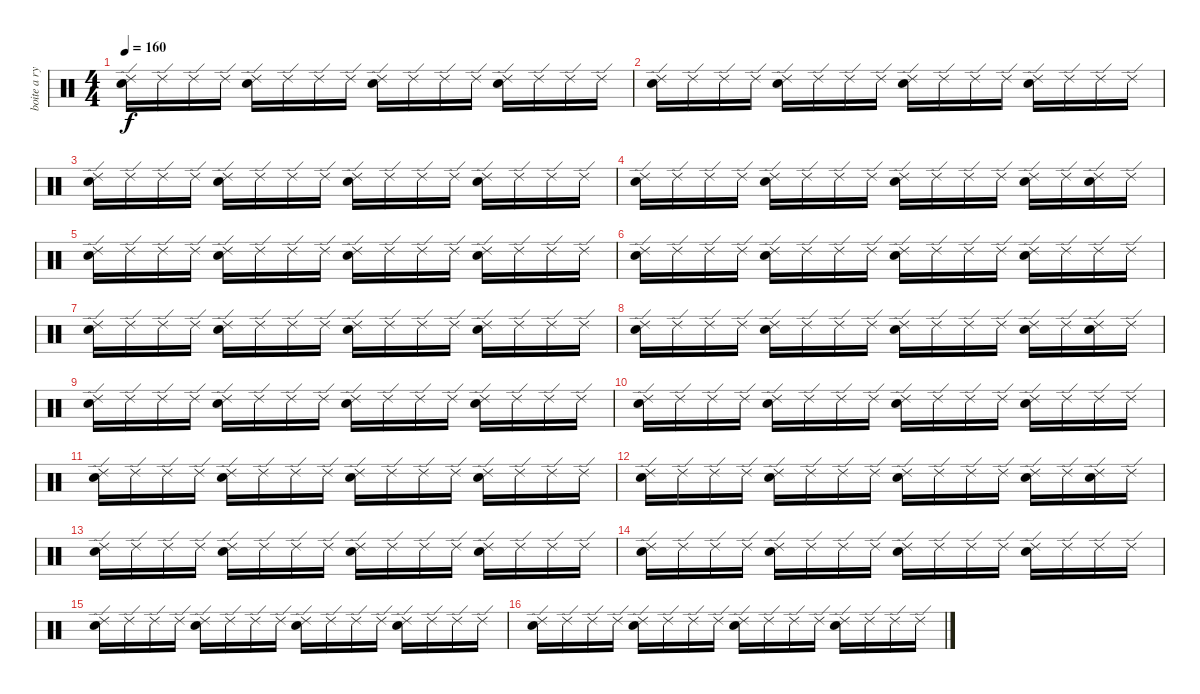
\track ("boite a rythme" "boite a ry") {instrument percussion}
\staff {score}
\articulation defaults
\ts (4 4)
\tempo 160
\clef neutral
\ks c
("Ride (edge) 2" "Electric Snare (hit)").16{dy f} "Ride (edge) 2".16 "Ride (edge) 2".16 "Ride (edge) 2".16 ("Ride (edge) 2" "Electric Snare (hit)").16 "Ride (edge) 2".16 "Ride (edge) 2".16 "Ride (edge) 2".16 ("Ride (edge) 2" "Electric Snare (hit)").16 "Ride (edge) 2".16 "Ride (edge) 2".16 "Ride (edge) 2".16 ("Ride (edge) 2" "Electric Snare (hit)").16 "Ride (edge) 2".16 "Ride (edge) 2".16 "Ride (edge) 2".16 |
("Ride (edge) 2" "Electric Snare (hit)").16 "Ride (edge) 2".16 "Ride (edge) 2".16 "Ride (edge) 2".16 ("Ride (edge) 2" "Electric Snare (hit)").16 "Ride (edge) 2".16 "Ride (edge) 2".16 "Ride (edge) 2".16 ("Ride (edge) 2" "Electric Snare (hit)").16 "Ride (edge) 2".16 "Ride (edge) 2".16 "Ride (edge) 2".16 ("Ride (edge) 2" "Electric Snare (hit)").16 "Ride (edge) 2".16 "Ride (edge) 2".16 "Ride (edge) 2".16 |
("Ride (edge) 2" "Electric Snare (hit)").16 "Ride (edge) 2".16 "Ride (edge) 2".16 "Ride (edge) 2".16 ("Ride (edge) 2" "Electric Snare (hit)").16 "Ride (edge) 2".16 "Ride (edge) 2".16 "Ride (edge) 2".16 ("Ride (edge) 2" "Electric Snare (hit)").16 "Ride (edge) 2".16 "Ride (edge) 2".16 "Ride (edge) 2".16 ("Ride (edge) 2" "Electric Snare (hit)").16 "Ride (edge) 2".16 "Ride (edge) 2".16 "Ride (edge) 2".16 |
("Ride (edge) 2" "Electric Snare (hit)").16 "Ride (edge) 2".16 "Ride (edge) 2".16 "Ride (edge) 2".16 ("Ride (edge) 2" "Electric Snare (hit)").16 "Ride (edge) 2".16 "Ride (edge) 2".16 "Ride (edge) 2".16 ("Ride (edge) 2" "Electric Snare (hit)").16 "Ride (edge) 2".16 "Ride (edge) 2".16 "Ride (edge) 2".16 ("Ride (edge) 2" "Electric Snare (hit)").16 "Ride (edge) 2".16 ("Ride (edge) 2" "Electric Snare (hit)").16 "Ride (edge) 2".16 |
("Ride (edge) 2" "Electric Snare (hit)").16 "Ride (edge) 2".16 "Ride (edge) 2".16 "Ride (edge) 2".16 ("Ride (edge) 2" "Electric Snare (hit)").16 "Ride (edge) 2".16 "Ride (edge) 2".16 "Ride (edge) 2".16 ("Ride (edge) 2" "Electric Snare (hit)").16 "Ride (edge) 2".16 "Ride (edge) 2".16 "Ride (edge) 2".16 ("Ride (edge) 2" "Electric Snare (hit)").16 "Ride (edge) 2".16 "Ride (edge) 2".16 "Ride (edge) 2".16 |
("Ride (edge) 2" "Electric Snare (hit)").16 "Ride (edge) 2".16 "Ride (edge) 2".16 "Ride (edge) 2".16 ("Ride (edge) 2" "Electric Snare (hit)").16 "Ride (edge) 2".16 "Ride (edge) 2".16 "Ride (edge) 2".16 ("Ride (edge) 2" "Electric Snare (hit)").16 "Ride (edge) 2".16 "Ride (edge) 2".16 "Ride (edge) 2".16 ("Ride (edge) 2" "Electric Snare (hit)").16 "Ride (edge) 2".16 "Ride (edge) 2".16 "Ride (edge) 2".16 |
("Ride (edge) 2" "Electric Snare (hit)").16 "Ride (edge) 2".16 "Ride (edge) 2".16 "Ride (edge) 2".16 ("Ride (edge) 2" "Electric Snare (hit)").16 "Ride (edge) 2".16 "Ride (edge) 2".16 "Ride (edge) 2".16 ("Ride (edge) 2" "Electric Snare (hit)").16 "Ride (edge) 2".16 "Ride (edge) 2".16 "Ride (edge) 2".16 ("Ride (edge) 2" "Electric Snare (hit)").16 "Ride (edge) 2".16 "Ride (edge) 2".16 "Ride (edge) 2".16 |
("Ride (edge) 2" "Electric Snare (hit)").16 "Ride (edge) 2".16 "Ride (edge) 2".16 "Ride (edge) 2".16 ("Ride (edge) 2" "Electric Snare (hit)").16 "Ride (edge) 2".16 "Ride (edge) 2".16 "Ride (edge) 2".16 ("Ride (edge) 2" "Electric Snare (hit)").16 "Ride (edge) 2".16 "Ride (edge) 2".16 "Ride (edge) 2".16 ("Ride (edge) 2" "Electric Snare (hit)").16 "Ride (edge) 2".16 ("Ride (edge) 2" "Electric Snare (hit)").16 "Ride (edge) 2".16 |
("Ride (edge) 2" "Electric Snare (hit)").16 "Ride (edge) 2".16 "Ride (edge) 2".16 "Ride (edge) 2".16 ("Ride (edge) 2" "Electric Snare (hit)").16 "Ride (edge) 2".16 "Ride (edge) 2".16 "Ride (edge) 2".16 ("Ride (edge) 2" "Electric Snare (hit)").16 "Ride (edge) 2".16 "Ride (edge) 2".16 "Ride (edge) 2".16 ("Ride (edge) 2" "Electric Snare (hit)").16 "Ride (edge) 2".16 "Ride (edge) 2".16 "Ride (edge) 2".16 |
("Ride (edge) 2" "Electric Snare (hit)").16 "Ride (edge) 2".16 "Ride (edge) 2".16 "Ride (edge) 2".16 ("Ride (edge) 2" "Electric Snare (hit)").16 "Ride (edge) 2".16 "Ride (edge) 2".16 "Ride (edge) 2".16 ("Ride (edge) 2" "Electric Snare (hit)").16 "Ride (edge) 2".16 "Ride (edge) 2".16 "Ride (edge) 2".16 ("Ride (edge) 2" "Electric Snare (hit)").16 "Ride (edge) 2".16 "Ride (edge) 2".16 "Ride (edge) 2".16 |
("Ride (edge) 2" "Electric Snare (hit)").16 "Ride (edge) 2".16 "Ride (edge) 2".16 "Ride (edge) 2".16 ("Ride (edge) 2" "Electric Snare (hit)").16 "Ride (edge) 2".16 "Ride (edge) 2".16 "Ride (edge) 2".16 ("Ride (edge) 2" "Electric Snare (hit)").16 "Ride (edge) 2".16 "Ride (edge) 2".16 "Ride (edge) 2".16 ("Ride (edge) 2" "Electric Snare (hit)").16 "Ride (edge) 2".16 "Ride (edge) 2".16 "Ride (edge) 2".16 |
("Ride (edge) 2" "Electric Snare (hit)").16 "Ride (edge) 2".16 "Ride (edge) 2".16 "Ride (edge) 2".16 ("Ride (edge) 2" "Electric Snare (hit)").16 "Ride (edge) 2".16 "Ride (edge) 2".16 "Ride (edge) 2".16 ("Ride (edge) 2" "Electric Snare (hit)").16 "Ride (edge) 2".16 "Ride (edge) 2".16 "Ride (edge) 2".16 ("Ride (edge) 2" "Electric Snare (hit)").16 "Ride (edge) 2".16 ("Ride (edge) 2" "Electric Snare (hit)").16 "Ride (edge) 2".16 |
("Ride (edge) 2" "Electric Snare (hit)").16 "Ride (edge) 2".16 "Ride (edge) 2".16 "Ride (edge) 2".16 ("Ride (edge) 2" "Electric Snare (hit)").16 "Ride (edge) 2".16 "Ride (edge) 2".16 "Ride (edge) 2".16 ("Ride (edge) 2" "Electric Snare (hit)").16 "Ride (edge) 2".16 "Ride (edge) 2".16 "Ride (edge) 2".16 ("Ride (edge) 2" "Electric Snare (hit)").16 "Ride (edge) 2".16 "Ride (edge) 2".16 "Ride (edge) 2".16 |
("Ride (edge) 2" "Electric Snare (hit)").16 "Ride (edge) 2".16 "Ride (edge) 2".16 "Ride (edge) 2".16 ("Ride (edge) 2" "Electric Snare (hit)").16 "Ride (edge) 2".16 "Ride (edge) 2".16 "Ride (edge) 2".16 ("Ride (edge) 2" "Electric Snare (hit)").16 "Ride (edge) 2".16 "Ride (edge) 2".16 "Ride (edge) 2".16 ("Ride (edge) 2" "Electric Snare (hit)").16 "Ride (edge) 2".16 "Ride (edge) 2".16 "Ride (edge) 2".16 |
("Ride (edge) 2" "Electric Snare (hit)").16 "Ride (edge) 2".16 "Ride (edge) 2".16 "Ride (edge) 2".16 ("Ride (edge) 2" "Electric Snare (hit)").16 "Ride (edge) 2".16 "Ride (edge) 2".16 "Ride (edge) 2".16 ("Ride (edge) 2" "Electric Snare (hit)").16 "Ride (edge) 2".16 "Ride (edge) 2".16 "Ride (edge) 2".16 ("Ride (edge) 2" "Electric Snare (hit)").16 "Ride (edge) 2".16 "Ride (edge) 2".16 "Ride (edge) 2".16 |
("Ride (edge) 2" "Electric Snare (hit)").16 "Ride (edge) 2".16 "Ride (edge) 2".16 "Ride (edge) 2".16 ("Ride (edge) 2" "Electric Snare (hit)").16 "Ride (edge) 2".16 "Ride (edge) 2".16 "Ride (edge) 2".16 ("Ride (edge) 2" "Electric Snare (hit)").16 "Ride (edge) 2".16 "Ride (edge) 2".16 "Ride (edge) 2".16 ("Ride (edge) 2" "Electric Snare (hit)").16 "Ride (edge) 2".16 "Ride (edge) 2".16 "Ride (edge) 2".16
